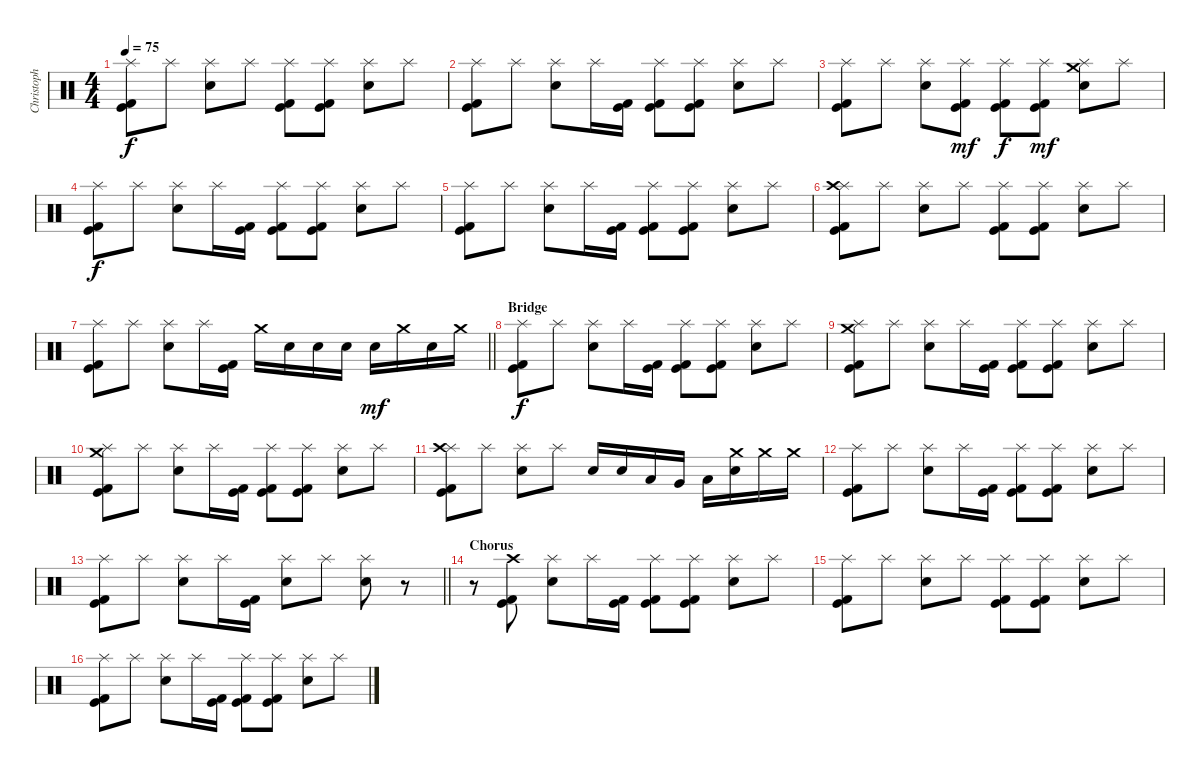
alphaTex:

\track ("Christoph" "Christoph") {instrument percussion}
\staff {score}
\articulation defaults
\ts (4 4)
\tempo 75
\clef neutral
\ks c
("Splash (hit)" "Kick (hit)" "Kick (hit) 2").8{dy f} "Splash (hit)".8 ("Splash (hit)" "Snare (hit) 2").8 "Splash (hit)".8 ("Splash (hit)" "Kick (hit)" "Kick (hit) 2").8 ("Kick (hit) 2" "Kick (hit)" "Splash (hit)").8 ("Splash (hit)" "Snare (hit) 2").8 "Splash (hit)".8 |
("Splash (hit)" "Kick (hit)" "Kick (hit) 2").8 "Splash (hit)".8 ("Splash (hit)" "Snare (hit) 2").8 "Splash (hit)".16 ("Kick (hit)" "Kick (hit) 2").16 ("Kick (hit) 2" "Kick (hit)" "Splash (hit)").8 ("Kick (hit) 2" "Kick (hit)" "Splash (hit)").8 ("Snare (hit) 2" "Splash (hit)").8 "Splash (hit)".8 |
("Splash (hit)" "Kick (hit)" "Kick (hit) 2").8 "Splash (hit)".8 ("Splash (hit)" "Snare (hit) 2").8 ("Splash (hit)" "Kick (hit)" "Kick (hit) 2").8{dy mf} ("Splash (hit)" "Kick (hit)" "Kick (hit) 2").8{dy f} ("Kick (hit) 2" "Splash (hit)" "Kick (hit)").8{dy mf} ("Splash (hit)" "Snare (hit) 2" "Crash medium (hit)").8 "Splash (hit)".8 |
("Splash (hit)" "Kick (hit)" "Kick (hit) 2").8{dy f} "Splash (hit)".8 ("Splash (hit)" "Snare (hit) 2").8 "Splash (hit)".16 ("Kick (hit)" "Kick (hit) 2").16 ("Kick (hit) 2" "Kick (hit)" "Splash (hit)").8 ("Kick (hit) 2" "Kick (hit)" "Splash (hit)").8 ("Snare (hit) 2" "Splash (hit)").8 "Splash (hit)".8 |
("Splash (hit)" "Kick (hit)" "Kick (hit) 2").8 "Splash (hit)".8 ("Splash (hit)" "Snare (hit) 2").8 "Splash (hit)".16 ("Kick (hit)" "Kick (hit) 2").16 ("Kick (hit) 2" "Kick (hit)" "Splash (hit)").8 ("Kick (hit) 2" "Kick (hit)" "Splash (hit)").8 ("Snare (hit) 2" "Splash (hit)").8 "Splash (hit)".8 |
("Splash (hit)" "Kick (hit)" "Kick (hit) 2" "Crash high (hit)").8 "Splash (hit)".8 ("Splash (hit)" "Snare (hit) 2").8 "Splash (hit)".8 ("Splash (hit)" "Kick (hit)" "Kick (hit) 2").8 ("Splash (hit)" "Kick (hit)" "Kick (hit) 2").8 ("Splash (hit)" "Snare (hit) 2").8 "Splash (hit)".8 |
\barLineRight lightlight
("Splash (hit)" "Kick (hit)" "Kick (hit) 2").8 "Splash (hit)".8 ("Splash (hit)" "Snare (hit) 2").8 "Splash (hit)".16 ("Kick (hit)" "Kick (hit) 2").16 "Crash medium (hit)".16 "Snare (hit) 2".16 "Snare (hit) 2".16 "Snare (hit) 2".16 "Snare (hit) 2".16{dy mf} "Crash medium (hit)".16 "Snare (hit) 2".16 "Crash medium (hit)".16 |
\section ("" "Bridge")
("Splash (hit)" "Kick (hit)" "Kick (hit) 2").8{dy f} "Splash (hit)".8 ("Splash (hit)" "Snare (hit) 2").8 "Splash (hit)".16 ("Kick (hit)" "Kick (hit) 2").16 ("Kick (hit) 2" "Kick (hit)" "Splash (hit)").8 ("Kick (hit) 2" "Kick (hit)" "Splash (hit)").8 ("Snare (hit) 2" "Splash (hit)").8 "Splash (hit)".8 |
("Splash (hit)" "Kick (hit)" "Kick (hit) 2" "Crash medium (hit)").8 "Splash (hit)".8 ("Splash (hit)" "Snare (hit) 2").8 "Splash (hit)".16 ("Kick (hit)" "Kick (hit) 2").16 ("Kick (hit) 2" "Kick (hit)" "Splash (hit)").8 ("Kick (hit) 2" "Kick (hit)" "Splash (hit)").8 ("Snare (hit) 2" "Splash (hit)").8 "Splash (hit)".8 |
("Splash (hit)" "Kick (hit)" "Kick (hit) 2" "Crash medium (hit)").8 "Splash (hit)".8 ("Splash (hit)" "Snare (hit) 2").8 "Splash (hit)".16 ("Kick (hit)" "Kick (hit) 2").16 ("Kick (hit) 2" "Kick (hit)" "Splash (hit)").8 ("Kick (hit) 2" "Kick (hit)" "Splash (hit)").8 ("Snare (hit) 2" "Splash (hit)").8 "Splash (hit)".8 |
("Splash (hit)" "Kick (hit)" "Kick (hit) 2" "Crash high (hit)").8 "Splash (hit)".8 ("Splash (hit)" "Snare (hit) 2").8 "Splash (hit)".8 "Snare (hit) 2".16 "Snare (hit) 2".16 "Low Tom (hit)".16 "Very Low Tom (hit)".16 "Low Floor Tom (hit)".16 ("Snare (hit) 2" "Crash medium (hit)").16 "Crash medium (hit)".16 "Crash medium (hit)".16 |
("Splash (hit)" "Kick (hit)" "Kick (hit) 2").8 "Splash (hit)".8 ("Splash (hit)" "Snare (hit) 2").8 "Splash (hit)".16 ("Kick (hit)" "Kick (hit) 2").16 ("Kick (hit) 2" "Kick (hit)" "Splash (hit)").8 ("Kick (hit) 2" "Kick (hit)" "Splash (hit)").8 ("Snare (hit) 2" "Splash (hit)").8 "Splash (hit)".8 |
\barLineRight lightlight
("Splash (hit)" "Kick (hit)" "Kick (hit) 2").8 "Splash (hit)".8 ("Splash (hit)" "Snare (hit) 2").8 "Splash (hit)".16 ("Kick (hit)" "Kick (hit) 2").16 ("Snare (hit) 2" "Splash (hit)").8 "Splash (hit)".8 ("Snare (hit) 2" "Splash (hit)").8 r.8 |
\section ("" "Chorus")
r.8 ("Kick (hit)" "Kick (hit) 2" "Crash high (hit)").8 ("Splash (hit)" "Snare (hit) 2").8 "Splash (hit)".16 ("Kick (hit)" "Kick (hit) 2").16 ("Kick (hit) 2" "Kick (hit)" "Splash (hit)").8 ("Kick (hit) 2" "Kick (hit)" "Splash (hit)").8 ("Snare (hit) 2" "Splash (hit)").8 "Splash (hit)".8 |
("Splash (hit)" "Kick (hit)" "Kick (hit) 2").8 "Splash (hit)".8 ("Splash (hit)" "Snare (hit) 2").8 "Splash (hit)".8 ("Splash (hit)" "Kick (hit)" "Kick (hit) 2").8 ("Splash (hit)" "Kick (hit) 2" "Kick (hit)").8 ("Splash (hit)" "Snare (hit) 2").8 "Splash (hit)".8 |
("Splash (hit)" "Kick (hit)" "Kick (hit) 2").8 "Splash (hit)".8 ("Splash (hit)" "Snare (hit) 2").8 "Splash (hit)".16 ("Kick (hit)" "Kick (hit) 2").16 ("Kick (hit) 2" "Kick (hit)" "Splash (hit)").8 ("Kick (hit) 2" "Kick (hit)" "Splash (hit)").8 ("Snare (hit) 2" "Splash (hit)").8 "Splash (hit)".8
